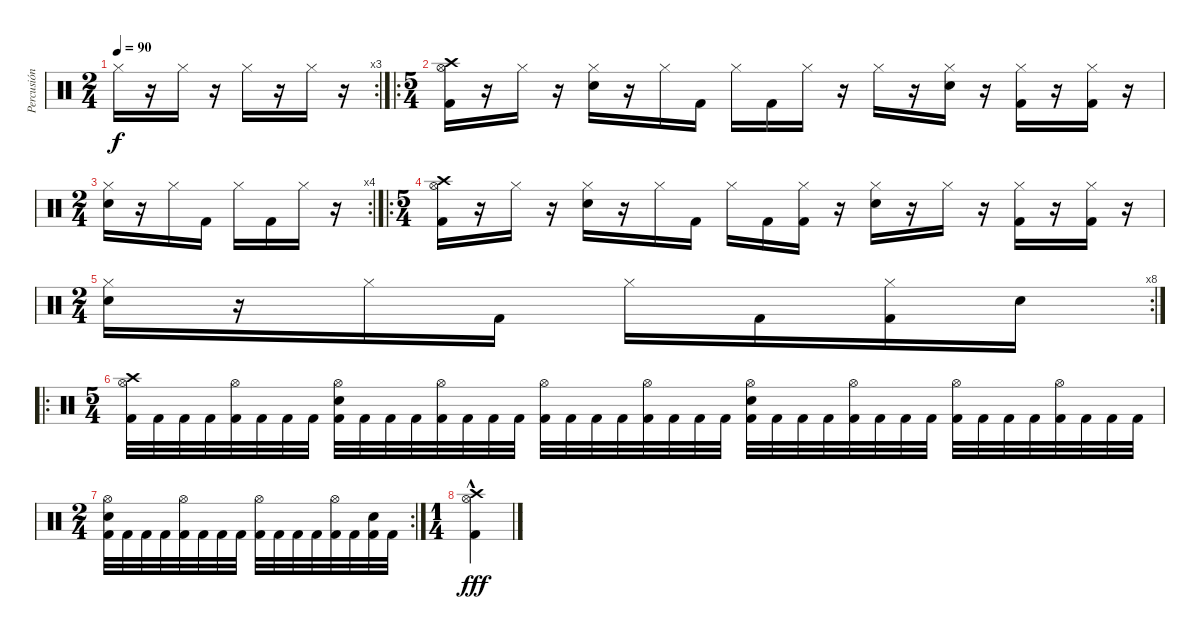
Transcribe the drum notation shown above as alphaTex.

\track ("Percusión" "Percusión") {instrument percussion}
\staff {score}
\articulation defaults
\rc 3
\ts (2 4)
\tempo 90
\clef neutral
\ks c "Hi-Hat (closed)".16{dy f}
r.16 "Hi-Hat (closed)".16 r.16 "Hi-Hat (closed)".16 r.16 "Hi-Hat (closed)".16 r.16 |
\ro
\ts (5 4)
("Hi-Hat (open)" "Crash high (hit)" "Kick (hit) 2").16 r.16 "Hi-Hat (closed)".16 r.16 ("Hi-Hat (closed)" "Electric Snare (hit)").16 r.16 "Hi-Hat (closed)".16 "Kick (hit) 2".16 "Hi-Hat (closed)".16 "Kick (hit) 2".16 "Hi-Hat (closed)".16 r.16 "Hi-Hat (closed)".16 r.16 ("Hi-Hat (closed)" "Electric Snare (hit)").16 r.16 ("Hi-Hat (closed)" "Kick (hit) 2").16 r.16 ("Hi-Hat (closed)" "Kick (hit) 2").16 r.16 |
\rc 4
\ts (2 4)
("Hi-Hat (closed)" "Electric Snare (hit)").16 r.16 "Hi-Hat (closed)".16 "Kick (hit) 2".16 "Hi-Hat (closed)".16 "Kick (hit) 2".16 "Hi-Hat (closed)".16 r.16 |
\ro
\ts (5 4)
("Hi-Hat (open)" "Crash high (hit)" "Kick (hit) 2").16 r.16 "Hi-Hat (closed)".16 r.16 ("Hi-Hat (closed)" "Electric Snare (hit)").16 r.16 "Hi-Hat (closed)".16 "Kick (hit) 2".16 "Hi-Hat (closed)".16 "Kick (hit) 2".16 ("Hi-Hat (closed)" "Kick (hit) 2").16 r.16 ("Hi-Hat (closed)" "Electric Snare (hit)").16 r.16 "Hi-Hat (closed)".16 r.16 ("Hi-Hat (closed)" "Kick (hit) 2").16 r.16 ("Hi-Hat (closed)" "Kick (hit) 2").16 r.16 |
\rc 8
\ts (2 4)
("Hi-Hat (closed)" "Electric Snare (hit)").16 r.16 "Hi-Hat (closed)".16 "Kick (hit) 2".16 "Hi-Hat (closed)".16 "Kick (hit) 2".16 ("Hi-Hat (closed)" "Kick (hit) 2").16 "Electric Snare (hit)".16 |
\ro
\ts (5 4)
("Hi-Hat (open)" "Crash high (hit)" "Kick (hit) 2").32 "Kick (hit) 2".32 "Kick (hit) 2".32 "Kick (hit) 2".32 ("Hi-Hat (open)" "Kick (hit) 2").32 "Kick (hit) 2".32 "Kick (hit) 2".32 "Kick (hit) 2".32 ("Hi-Hat (open)" "Electric Snare (hit)" "Kick (hit) 2").32 "Kick (hit) 2".32 "Kick (hit) 2".32 "Kick (hit) 2".32 ("Hi-Hat (open)" "Kick (hit) 2").32 "Kick (hit) 2".32 "Kick (hit) 2".32 "Kick (hit) 2".32 ("Hi-Hat (open)" "Kick (hit) 2").32 "Kick (hit) 2".32 "Kick (hit) 2".32 "Kick (hit) 2".32 ("Hi-Hat (open)" "Kick (hit) 2").32 "Kick (hit) 2".32 "Kick (hit) 2".32 "Kick (hit) 2".32 ("Hi-Hat (open)" "Electric Snare (hit)" "Kick (hit) 2").32 "Kick (hit) 2".32 "Kick (hit) 2".32 "Kick (hit) 2".32 ("Hi-Hat (open)" "Kick (hit) 2").32 "Kick (hit) 2".32 "Kick (hit) 2".32 "Kick (hit) 2".32 ("Hi-Hat (open)" "Kick (hit) 2").32 "Kick (hit) 2".32 "Kick (hit) 2".32 "Kick (hit) 2".32 ("Hi-Hat (open)" "Kick (hit) 2").32 "Kick (hit) 2".32 "Kick (hit) 2".32 "Kick (hit) 2".32 |
\rc 2
\ts (2 4)
("Hi-Hat (open)" "Electric Snare (hit)" "Kick (hit) 2").32 "Kick (hit) 2".32 "Kick (hit) 2".32 "Kick (hit) 2".32 ("Hi-Hat (open)" "Kick (hit) 2").32 "Kick (hit) 2".32 "Kick (hit) 2".32 "Kick (hit) 2".32 ("Hi-Hat (open)" "Kick (hit) 2").32 "Kick (hit) 2".32 "Kick (hit) 2".32 "Kick (hit) 2".32 ("Hi-Hat (open)" "Kick (hit) 2").32 "Kick (hit) 2".32 ("Electric Snare (hit)" "Kick (hit) 2").32 "Kick (hit) 2".32 |
\ts (1 4)
("Hi-Hat (open)"{hac} "Crash high (hit)"{hac} "Kick (hit) 2"{hac}).4{dy fff}
